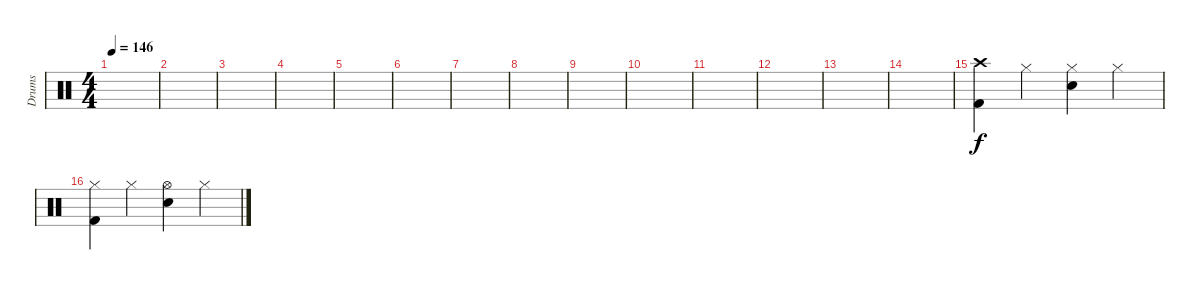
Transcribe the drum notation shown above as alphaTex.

\track ("Drums" "Drums") {instrument percussion}
\staff {score}
\articulation defaults
\ts (4 4)
\tempo 146
\clef neutral
\ks c
|
|
|
|
|
|
|
|
|
|
|
|
|
|
("Crash high (hit)" "Kick (hit) 2").4 "Hi-Hat (closed)".4 ("Hi-Hat (closed)" "Snare (hit) 2").4 "Hi-Hat (closed)".4 |
("Hi-Hat (closed)" "Kick (hit) 2").4 "Hi-Hat (closed)".4 ("Hi-Hat (open)" "Snare (hit) 2").4 "Hi-Hat (closed)".4
